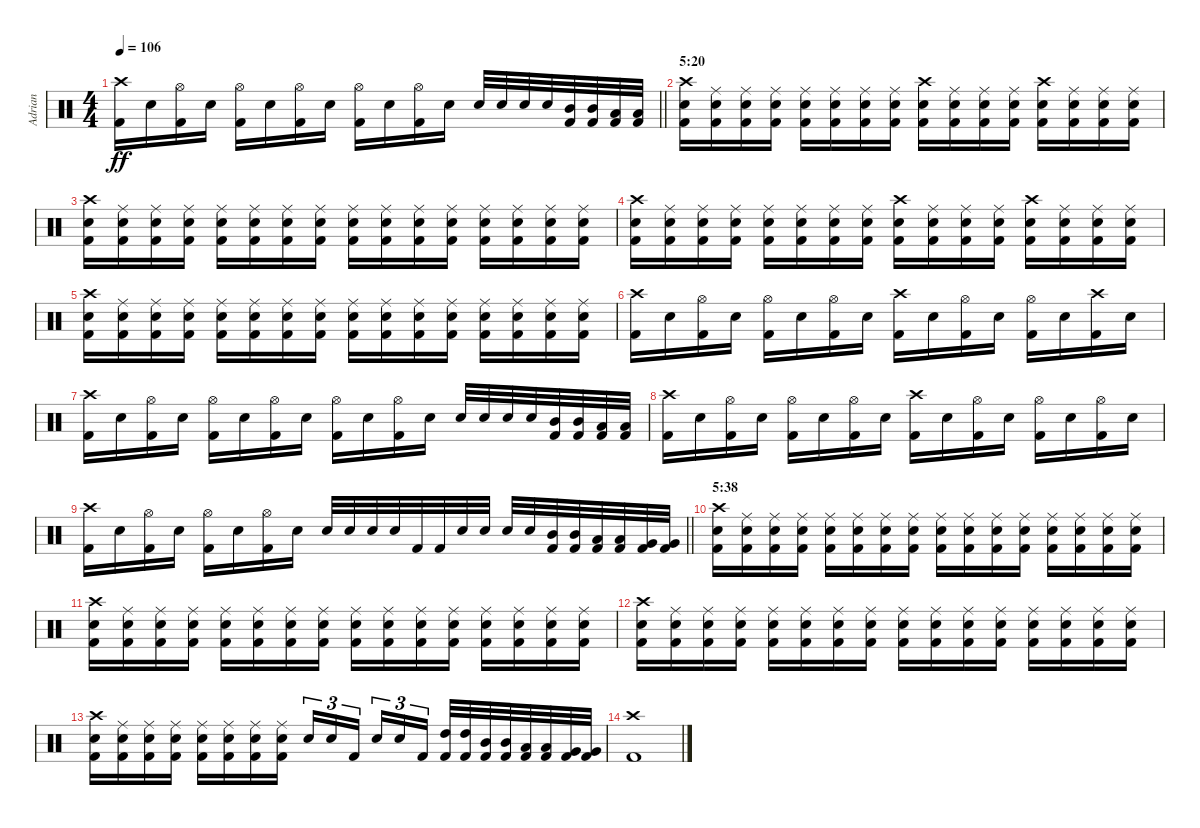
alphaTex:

\track ("Adrian" "Adrian") {instrument percussion}
\staff {score}
\articulation defaults
\ts (4 4)
\tempo 106
\clef neutral
\barLineRight lightlight
\ks c
("Kick (hit) 2" "Crash high (hit)").16{dy ff} "Snare (hit) 2".16 ("Kick (hit) 2" "Hi-Hat (open)").16 "Snare (hit) 2".16 ("Kick (hit) 2" "Hi-Hat (open)").16 "Snare (hit) 2".16 ("Kick (hit) 2" "Hi-Hat (open)").16 "Snare (hit) 2".16 ("Kick (hit) 2" "Hi-Hat (open)").16 "Snare (hit) 2".16 ("Kick (hit) 2" "Hi-Hat (open)").16 "Snare (hit) 2".16 "Snare (hit) 2".32 "Snare (hit) 2".32 "Snare (hit) 2".32 "Snare (hit) 2".32 ("Kick (hit) 2" "Mid Tom (hit)").32 ("Kick (hit) 2" "Mid Tom (hit)").32 ("Kick (hit) 2" "Low Tom (hit)").32 ("Kick (hit) 2" "Low Tom (hit)").32 |
\section ("" "5:20")
("Kick (hit) 2" "Snare (hit) 2" "Crash high (hit)").16 ("Kick (hit) 2" "Snare (hit) 2" "Ride (middle)").16 ("Kick (hit) 2" "Snare (hit) 2" "Ride (middle)").16 ("Kick (hit) 2" "Snare (hit) 2" "Ride (middle)").16 ("Kick (hit) 2" "Snare (hit) 2" "Ride (middle)").16 ("Kick (hit) 2" "Snare (hit) 2" "Ride (middle)").16 ("Kick (hit) 2" "Snare (hit) 2" "Ride (middle)").16 ("Kick (hit) 2" "Snare (hit) 2" "Ride (middle)").16 ("Kick (hit) 2" "Snare (hit) 2" "Crash high (hit)").16 ("Kick (hit) 2" "Snare (hit) 2" "Ride (middle)").16 ("Kick (hit) 2" "Snare (hit) 2" "Ride (middle)").16 ("Kick (hit) 2" "Snare (hit) 2" "Ride (middle)").16 ("Kick (hit) 2" "Snare (hit) 2" "Crash high (hit)").16 ("Kick (hit) 2" "Snare (hit) 2" "Ride (middle)").16 ("Kick (hit) 2" "Snare (hit) 2" "Ride (middle)").16 ("Kick (hit) 2" "Snare (hit) 2" "Ride (middle)").16 |
("Kick (hit) 2" "Snare (hit) 2" "Crash high (hit)").16 ("Kick (hit) 2" "Snare (hit) 2" "Ride (middle)").16 ("Kick (hit) 2" "Snare (hit) 2" "Ride (middle)").16 ("Kick (hit) 2" "Snare (hit) 2" "Ride (middle)").16 ("Kick (hit) 2" "Snare (hit) 2" "Ride (middle)").16 ("Kick (hit) 2" "Snare (hit) 2" "Ride (middle)").16 ("Kick (hit) 2" "Snare (hit) 2" "Ride (middle)").16 ("Kick (hit) 2" "Snare (hit) 2" "Ride (middle)").16 ("Kick (hit) 2" "Snare (hit) 2" "Ride (middle)").16 ("Kick (hit) 2" "Snare (hit) 2" "Ride (middle)").16 ("Kick (hit) 2" "Snare (hit) 2" "Ride (middle)").16 ("Kick (hit) 2" "Snare (hit) 2" "Ride (middle)").16 ("Kick (hit) 2" "Snare (hit) 2" "Ride (middle)").16 ("Kick (hit) 2" "Snare (hit) 2" "Ride (middle)").16 ("Kick (hit) 2" "Snare (hit) 2" "Ride (middle)").16 ("Kick (hit) 2" "Snare (hit) 2" "Ride (middle)").16 |
("Kick (hit) 2" "Snare (hit) 2" "Crash high (hit)").16 ("Kick (hit) 2" "Snare (hit) 2" "Ride (middle)").16 ("Kick (hit) 2" "Snare (hit) 2" "Ride (middle)").16 ("Kick (hit) 2" "Snare (hit) 2" "Ride (middle)").16 ("Kick (hit) 2" "Snare (hit) 2" "Ride (middle)").16 ("Kick (hit) 2" "Snare (hit) 2" "Ride (middle)").16 ("Kick (hit) 2" "Snare (hit) 2" "Ride (middle)").16 ("Kick (hit) 2" "Snare (hit) 2" "Ride (middle)").16 ("Kick (hit) 2" "Snare (hit) 2" "Crash high (hit)").16 ("Kick (hit) 2" "Snare (hit) 2" "Ride (middle)").16 ("Kick (hit) 2" "Snare (hit) 2" "Ride (middle)").16 ("Kick (hit) 2" "Snare (hit) 2" "Ride (middle)").16 ("Kick (hit) 2" "Snare (hit) 2" "Crash high (hit)").16 ("Kick (hit) 2" "Snare (hit) 2" "Ride (middle)").16 ("Kick (hit) 2" "Snare (hit) 2" "Ride (middle)").16 ("Kick (hit) 2" "Snare (hit) 2" "Ride (middle)").16 |
("Kick (hit) 2" "Snare (hit) 2" "Crash high (hit)").16 ("Kick (hit) 2" "Snare (hit) 2" "Ride (middle)").16 ("Kick (hit) 2" "Snare (hit) 2" "Ride (middle)").16 ("Kick (hit) 2" "Snare (hit) 2" "Ride (middle)").16 ("Kick (hit) 2" "Snare (hit) 2" "Ride (middle)").16 ("Kick (hit) 2" "Snare (hit) 2" "Ride (middle)").16 ("Kick (hit) 2" "Snare (hit) 2" "Ride (middle)").16 ("Kick (hit) 2" "Snare (hit) 2" "Ride (middle)").16 ("Kick (hit) 2" "Snare (hit) 2" "Ride (middle)").16 ("Kick (hit) 2" "Snare (hit) 2" "Ride (middle)").16 ("Kick (hit) 2" "Snare (hit) 2" "Ride (middle)").16 ("Kick (hit) 2" "Snare (hit) 2" "Ride (middle)").16 ("Kick (hit) 2" "Snare (hit) 2" "Ride (middle)").16 ("Kick (hit) 2" "Snare (hit) 2" "Ride (middle)").16 ("Kick (hit) 2" "Snare (hit) 2" "Ride (middle)").16 ("Kick (hit) 2" "Snare (hit) 2" "Ride (middle)").16 |
("Kick (hit) 2" "Crash high (hit)").16 "Snare (hit) 2".16 ("Kick (hit) 2" "Hi-Hat (open)").16 "Snare (hit) 2".16 ("Kick (hit) 2" "Hi-Hat (open)").16 "Snare (hit) 2".16 ("Kick (hit) 2" "Hi-Hat (open)").16 "Snare (hit) 2".16 ("Kick (hit) 2" "Crash high (hit)").16 "Snare (hit) 2".16 ("Kick (hit) 2" "Hi-Hat (open)").16 "Snare (hit) 2".16 ("Kick (hit) 2" "Hi-Hat (open)").16 "Snare (hit) 2".16 ("Kick (hit) 2" "Crash high (hit)").16 "Snare (hit) 2".16 |
("Kick (hit) 2" "Crash high (hit)").16 "Snare (hit) 2".16 ("Kick (hit) 2" "Hi-Hat (open)").16 "Snare (hit) 2".16 ("Kick (hit) 2" "Hi-Hat (open)").16 "Snare (hit) 2".16 ("Kick (hit) 2" "Hi-Hat (open)").16 "Snare (hit) 2".16 ("Kick (hit) 2" "Hi-Hat (open)").16 "Snare (hit) 2".16 ("Kick (hit) 2" "Hi-Hat (open)").16 "Snare (hit) 2".16 "Snare (hit) 2".32 "Snare (hit) 2".32 "Snare (hit) 2".32 "Snare (hit) 2".32 ("Kick (hit) 2" "Mid Tom (hit)").32 ("Kick (hit) 2" "Mid Tom (hit)").32 ("Kick (hit) 2" "Low Tom (hit)").32 ("Kick (hit) 2" "Low Tom (hit)").32 |
("Kick (hit) 2" "Crash high (hit)").16 "Snare (hit) 2".16 ("Kick (hit) 2" "Hi-Hat (open)").16 "Snare (hit) 2".16 ("Kick (hit) 2" "Hi-Hat (open)").16 "Snare (hit) 2".16 ("Kick (hit) 2" "Hi-Hat (open)").16 "Snare (hit) 2".16 ("Kick (hit) 2" "Crash high (hit)").16 "Snare (hit) 2".16 ("Kick (hit) 2" "Hi-Hat (open)").16 "Snare (hit) 2".16 ("Kick (hit) 2" "Hi-Hat (open)").16 "Snare (hit) 2".16 ("Kick (hit) 2" "Hi-Hat (open)").16 "Snare (hit) 2".16 |
\barLineRight lightlight
("Kick (hit) 2" "Crash high (hit)").16 "Snare (hit) 2".16 ("Kick (hit) 2" "Hi-Hat (open)").16 "Snare (hit) 2".16 ("Kick (hit) 2" "Hi-Hat (open)").16 "Snare (hit) 2".16 ("Kick (hit) 2" "Hi-Hat (open)").16 "Snare (hit) 2".16 "Snare (hit) 2".32 "Snare (hit) 2".32 "Snare (hit) 2".32 "Snare (hit) 2".32 "Kick (hit) 2".32 "Kick (hit) 2".32 "Snare (hit) 2".32 "Snare (hit) 2".32 "Snare (hit) 2".32 "Snare (hit) 2".32 ("Kick (hit) 2" "Mid Tom (hit)").32 ("Kick (hit) 2" "Mid Tom (hit)").32 ("Kick (hit) 2" "Low Tom (hit)").32 ("Kick (hit) 2" "Low Tom (hit)").32 ("Kick (hit) 2" "Very Low Tom (hit)").32 ("Kick (hit) 2" "Very Low Tom (hit)").32 |
\section ("" "5:38")
("Kick (hit) 2" "Snare (hit) 2" "Crash high (hit)").16 ("Kick (hit) 2" "Snare (hit) 2" "Ride (middle)").16 ("Kick (hit) 2" "Snare (hit) 2" "Ride (middle)").16 ("Kick (hit) 2" "Snare (hit) 2" "Ride (middle)").16 ("Kick (hit) 2" "Snare (hit) 2" "Ride (middle)").16 ("Kick (hit) 2" "Snare (hit) 2" "Ride (middle)").16 ("Kick (hit) 2" "Snare (hit) 2" "Ride (middle)").16 ("Kick (hit) 2" "Snare (hit) 2" "Ride (middle)").16 ("Kick (hit) 2" "Snare (hit) 2" "Ride (middle)").16 ("Kick (hit) 2" "Snare (hit) 2" "Ride (middle)").16 ("Kick (hit) 2" "Snare (hit) 2" "Ride (middle)").16 ("Kick (hit) 2" "Snare (hit) 2" "Ride (middle)").16 ("Kick (hit) 2" "Snare (hit) 2" "Ride (middle)").16 ("Kick (hit) 2" "Snare (hit) 2" "Ride (middle)").16 ("Kick (hit) 2" "Snare (hit) 2" "Ride (middle)").16 ("Kick (hit) 2" "Snare (hit) 2" "Ride (middle)").16 |
("Kick (hit) 2" "Snare (hit) 2" "Crash high (hit)").16 ("Kick (hit) 2" "Snare (hit) 2" "Ride (middle)").16 ("Kick (hit) 2" "Snare (hit) 2" "Ride (middle)").16 ("Kick (hit) 2" "Snare (hit) 2" "Ride (middle)").16 ("Kick (hit) 2" "Snare (hit) 2" "Ride (middle)").16 ("Kick (hit) 2" "Snare (hit) 2" "Ride (middle)").16 ("Kick (hit) 2" "Snare (hit) 2" "Ride (middle)").16 ("Kick (hit) 2" "Snare (hit) 2" "Ride (middle)").16 ("Kick (hit) 2" "Snare (hit) 2" "Ride (middle)").16 ("Kick (hit) 2" "Snare (hit) 2" "Ride (middle)").16 ("Kick (hit) 2" "Snare (hit) 2" "Ride (middle)").16 ("Kick (hit) 2" "Snare (hit) 2" "Ride (middle)").16 ("Kick (hit) 2" "Snare (hit) 2" "Ride (middle)").16 ("Kick (hit) 2" "Snare (hit) 2" "Ride (middle)").16 ("Kick (hit) 2" "Snare (hit) 2" "Ride (middle)").16 ("Kick (hit) 2" "Snare (hit) 2" "Ride (middle)").16 |
("Kick (hit) 2" "Snare (hit) 2" "Crash high (hit)").16 ("Kick (hit) 2" "Snare (hit) 2" "Ride (middle)").16 ("Kick (hit) 2" "Snare (hit) 2" "Ride (middle)").16 ("Kick (hit) 2" "Snare (hit) 2" "Ride (middle)").16 ("Kick (hit) 2" "Snare (hit) 2" "Ride (middle)").16 ("Kick (hit) 2" "Snare (hit) 2" "Ride (middle)").16 ("Kick (hit) 2" "Snare (hit) 2" "Ride (middle)").16 ("Kick (hit) 2" "Snare (hit) 2" "Ride (middle)").16 ("Kick (hit) 2" "Snare (hit) 2" "Ride (middle)").16 ("Kick (hit) 2" "Snare (hit) 2" "Ride (middle)").16 ("Kick (hit) 2" "Snare (hit) 2" "Ride (middle)").16 ("Kick (hit) 2" "Snare (hit) 2" "Ride (middle)").16 ("Kick (hit) 2" "Snare (hit) 2" "Ride (middle)").16 ("Kick (hit) 2" "Snare (hit) 2" "Ride (middle)").16 ("Kick (hit) 2" "Snare (hit) 2" "Ride (middle)").16 ("Kick (hit) 2" "Snare (hit) 2" "Ride (middle)").16 |
("Kick (hit) 2" "Snare (hit) 2" "Crash high (hit)").16 ("Kick (hit) 2" "Snare (hit) 2" "Ride (middle)").16 ("Kick (hit) 2" "Snare (hit) 2" "Ride (middle)").16 ("Kick (hit) 2" "Snare (hit) 2" "Ride (middle)").16 ("Kick (hit) 2" "Snare (hit) 2" "Ride (middle)").16 ("Kick (hit) 2" "Snare (hit) 2" "Ride (middle)").16 ("Kick (hit) 2" "Snare (hit) 2" "Ride (middle)").16 ("Kick (hit) 2" "Snare (hit) 2" "Ride (middle)").16 "Snare (hit) 2".16{tu (3 2)} "Snare (hit) 2".16{tu (3 2)} "Kick (hit) 2".16{tu (3 2) beam splitsecondary} "Snare (hit) 2".16{tu (3 2)} "Snare (hit) 2".16{tu (3 2)} "Kick (hit) 2".16{tu (3 2)} ("Kick (hit) 2" "High Tom (hit)").32 ("Kick (hit) 2" "High Tom (hit)").32 ("Kick (hit) 2" "Mid Tom (hit)").32 ("Kick (hit) 2" "Mid Tom (hit)").32 ("Kick (hit) 2" "Low Tom (hit)").32 ("Kick (hit) 2" "Low Tom (hit)").32 ("Kick (hit) 2" "Very Low Tom (hit)").32 ("Kick (hit) 2" "Very Low Tom (hit)").32 |
("Kick (hit) 2" "Crash high (hit)").1
